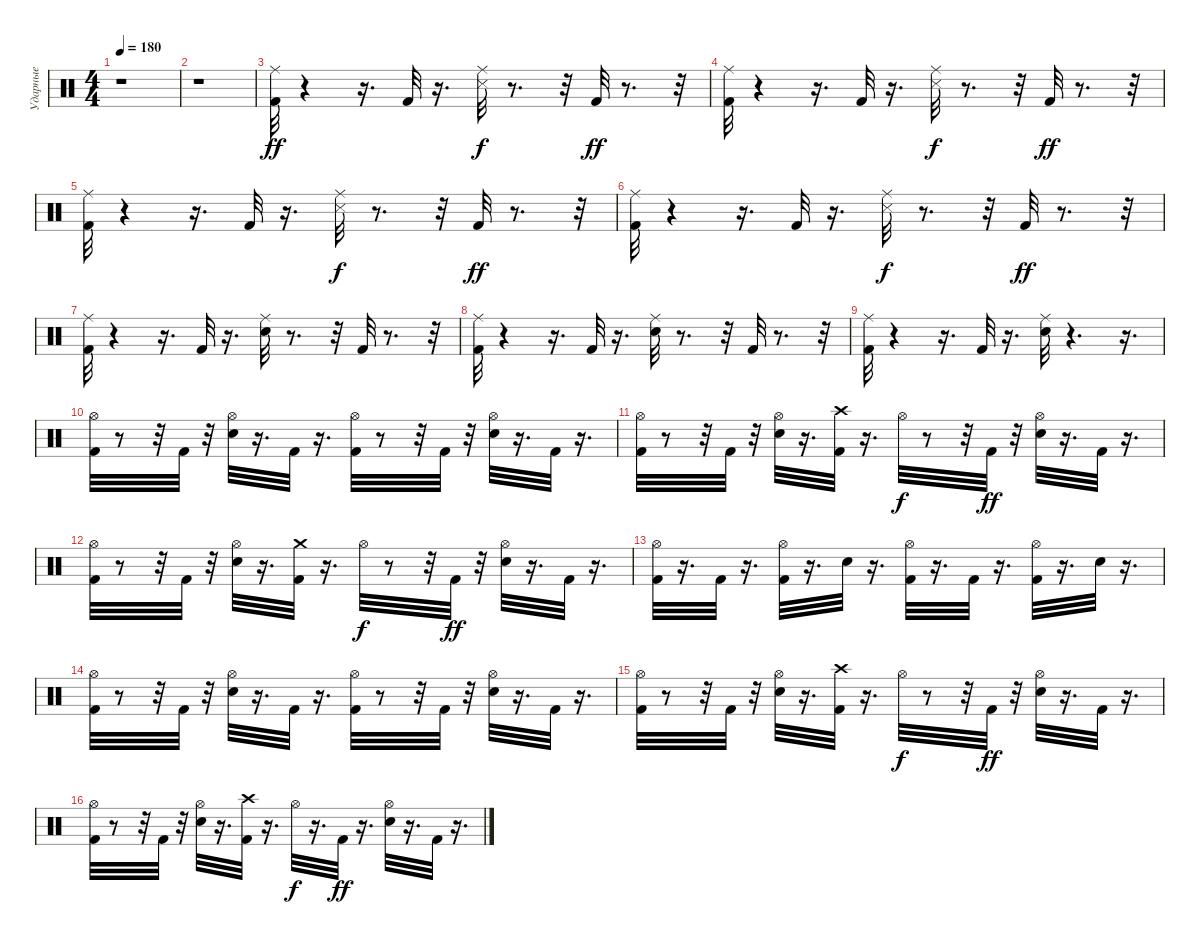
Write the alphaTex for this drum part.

\track ("Ударные" "Ударные") {instrument percussion}
\staff {score}
\articulation defaults
\ts (4 4)
\tempo 180
\clef neutral
\ks c
r.1{dy ff} |
r.1 |
("Ride (middle)" "Kick (hit) 2").32 r.4 r.16{d} "Kick (hit) 2".32 r.16{d} ("Ride (middle)" "Snare (side stick) 3").32{dy f} r.8{d} r.32 "Kick (hit) 2".32{dy ff} r.8{d} r.32 |
("Ride (middle)" "Kick (hit) 2").32 r.4 r.16{d} "Kick (hit) 2".32 r.16{d} ("Ride (middle)" "Snare (side stick) 3").32{dy f} r.8{d} r.32 "Kick (hit) 2".32{dy ff} r.8{d} r.32 |
("Ride (middle)" "Kick (hit) 2").32 r.4 r.16{d} "Kick (hit) 2".32 r.16{d} ("Ride (middle)" "Snare (side stick) 3").32{dy f} r.8{d} r.32 "Kick (hit) 2".32{dy ff} r.8{d} r.32 |
("Ride (middle)" "Kick (hit) 2").32 r.4 r.16{d} "Kick (hit) 2".32 r.16{d} ("Snare (side stick) 3" "Ride (middle)").32{dy f} r.8{d} r.32 "Kick (hit) 2".32{dy ff} r.8{d} r.32 |
("Ride (middle)" "Kick (hit) 2").32 r.4 r.16{d} "Kick (hit) 2".32 r.16{d} ("Ride (middle)" "Electric Snare (hit)").32 r.8{d} r.32 "Kick (hit) 2".32 r.8{d} r.32 |
("Ride (middle)" "Kick (hit) 2").32 r.4 r.16{d} "Kick (hit) 2".32 r.16{d} ("Ride (middle)" "Electric Snare (hit)").32 r.8{d} r.32 "Kick (hit) 2".32 r.8{d} r.32 |
("Ride (middle)" "Kick (hit) 2").32 r.4 r.16{d} "Kick (hit) 2".32 r.16{d} ("Ride (middle)" "Electric Snare (hit)").32 r.4{d} r.16{d} |
("Hi-Hat (open)" "Kick (hit) 2").32 r.8 r.32 "Kick (hit) 2".32 r.32 ("Hi-Hat (open)" "Electric Snare (hit)").32 r.16{d} "Kick (hit) 2".32 r.16{d} ("Hi-Hat (open)" "Kick (hit) 2").32 r.8 r.32 "Kick (hit) 2".32 r.32 ("Hi-Hat (open)" "Electric Snare (hit)").32 r.16{d} "Kick (hit) 2".32 r.16{d} |
("Hi-Hat (open)" "Kick (hit) 2").32 r.8 r.32 "Kick (hit) 2".32 r.32 ("Hi-Hat (open)" "Electric Snare (hit)").32 r.16{d} ("Crash high (hit)" "Kick (hit) 2").32 r.16{d} "Hi-Hat (open)".32{dy f} r.8 r.32 "Kick (hit) 2".32{dy ff} r.32 ("Hi-Hat (open)" "Electric Snare (hit)").32 r.16{d} "Kick (hit) 2".32 r.16{d} |
("Hi-Hat (open)" "Kick (hit) 2").32 r.8 r.32 "Kick (hit) 2".32 r.32 ("Hi-Hat (open)" "Electric Snare (hit)").32 r.16{d} ("Kick (hit) 2" "Crash medium (hit)").32 r.16{d} "Hi-Hat (open)".32{dy f} r.8 r.32 "Kick (hit) 2".32{dy ff} r.32 ("Hi-Hat (open)" "Electric Snare (hit)").32 r.16{d} "Kick (hit) 2".32 r.16{d} |
("Hi-Hat (open)" "Kick (hit) 2").32 r.16{d} "Kick (hit) 2".32 r.16{d} ("Hi-Hat (open)" "Kick (hit) 2").32 r.16{d} "Electric Snare (hit)".32 r.16{d} ("Kick (hit) 2" "Hi-Hat (open)").32 r.16{d} "Kick (hit) 2".32 r.16{d} ("Hi-Hat (open)" "Kick (hit) 2").32 r.16{d} "Electric Snare (hit)".32 r.16{d} |
("Hi-Hat (open)" "Kick (hit) 2").32 r.8 r.32 "Kick (hit) 2".32 r.32 ("Hi-Hat (open)" "Electric Snare (hit)").32 r.16{d} "Kick (hit) 2".32 r.16{d} ("Hi-Hat (open)" "Kick (hit) 2").32 r.8 r.32 "Kick (hit) 2".32 r.32 ("Hi-Hat (open)" "Electric Snare (hit)").32 r.16{d} "Kick (hit) 2".32 r.16{d} |
("Hi-Hat (open)" "Kick (hit) 2").32 r.8 r.32 "Kick (hit) 2".32 r.32 ("Hi-Hat (open)" "Electric Snare (hit)").32 r.16{d} ("Kick (hit) 2" "Crash high (hit)").32 r.16{d} "Hi-Hat (open)".32{dy f} r.8 r.32 "Kick (hit) 2".32{dy ff} r.32 ("Hi-Hat (open)" "Electric Snare (hit)").32 r.16{d} "Kick (hit) 2".32 r.16{d} |
("Hi-Hat (open)" "Kick (hit) 2").32 r.8 r.32 "Kick (hit) 2".32 r.32 ("Hi-Hat (open)" "Electric Snare (hit)").32 r.16{d} ("Crash high (hit)" "Kick (hit) 2").32 r.16{d} "Hi-Hat (open)".32{dy f} r.16{d} "Kick (hit) 2".32{dy ff} r.16{d} ("Hi-Hat (open)" "Electric Snare (hit)").32 r.16{d} "Kick (hit) 2".32 r.16{d}
